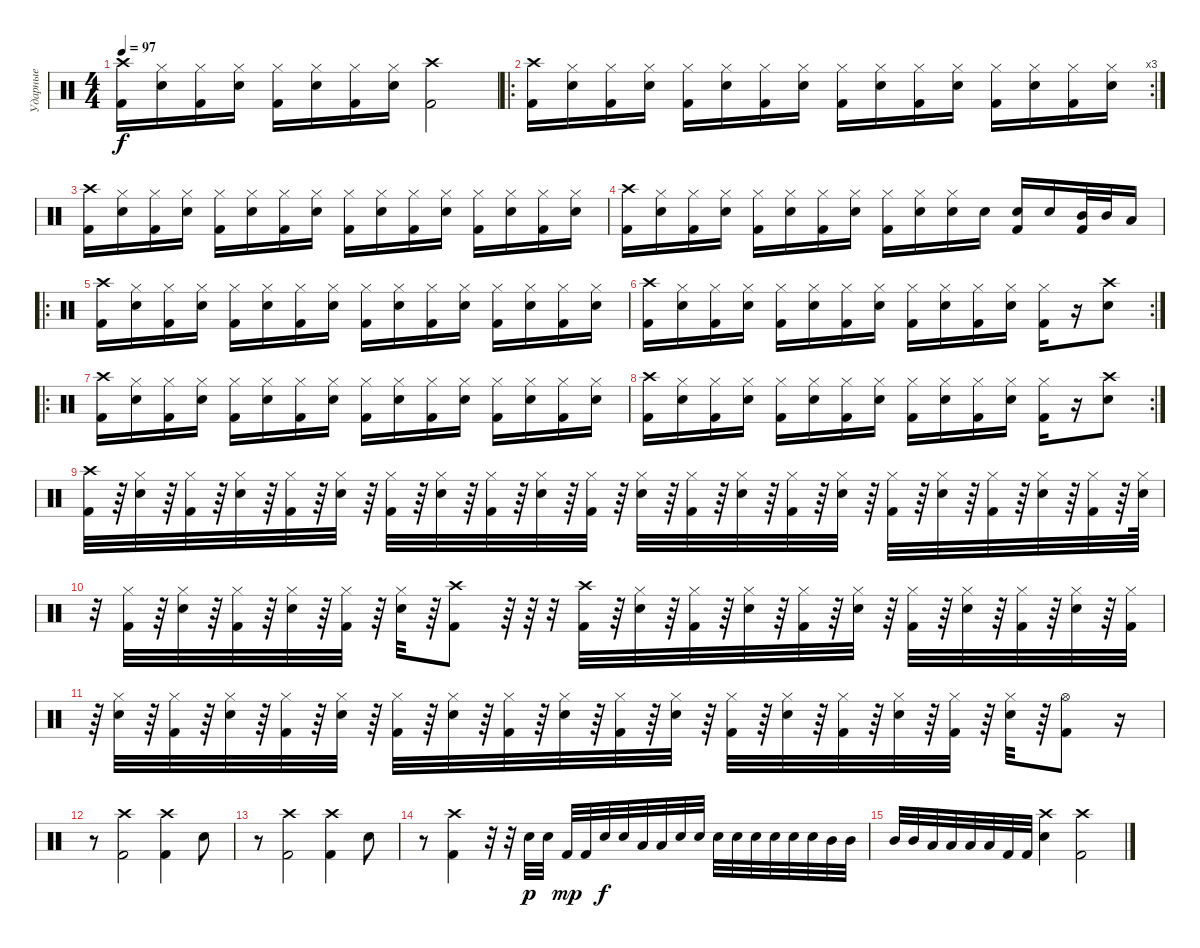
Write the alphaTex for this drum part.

\track ("Ударные" "Ударные") {instrument percussion}
\staff {score}
\articulation defaults
\ts (4 4)
\tempo 97
\clef neutral
\ks c
("Kick (hit) 2" "Crash high (hit)").16{dy f} ("Electric Snare (hit)" "Hi-Hat (closed)").16 ("Kick (hit) 2" "Hi-Hat (closed)").16 ("Electric Snare (hit)" "Hi-Hat (closed)").16 ("Kick (hit) 2" "Hi-Hat (closed)").16 ("Electric Snare (hit)" "Hi-Hat (closed)").16 ("Kick (hit) 2" "Hi-Hat (closed)").16 ("Electric Snare (hit)" "Hi-Hat (closed)").16 ("Kick (hit) 2" "Crash high (hit)").2 |
\ro
\rc 3
("Kick (hit) 2" "Crash high (hit)").16 ("Electric Snare (hit)" "Hi-Hat (closed)").16 ("Kick (hit) 2" "Hi-Hat (closed)").16 ("Electric Snare (hit)" "Hi-Hat (closed)").16 ("Kick (hit) 2" "Hi-Hat (closed)").16 ("Electric Snare (hit)" "Hi-Hat (closed)").16 ("Kick (hit) 2" "Hi-Hat (closed)").16 ("Electric Snare (hit)" "Hi-Hat (closed)").16 ("Kick (hit) 2" "Hi-Hat (closed)").16 ("Electric Snare (hit)" "Hi-Hat (closed)").16 ("Kick (hit) 2" "Hi-Hat (closed)").16 ("Electric Snare (hit)" "Hi-Hat (closed)").16 ("Kick (hit) 2" "Hi-Hat (closed)").16 ("Electric Snare (hit)" "Hi-Hat (closed)").16 ("Kick (hit) 2" "Hi-Hat (closed)").16 ("Electric Snare (hit)" "Hi-Hat (closed)").16 |
("Kick (hit) 2" "Crash high (hit)").16 ("Electric Snare (hit)" "Hi-Hat (closed)").16 ("Kick (hit) 2" "Hi-Hat (closed)").16 ("Electric Snare (hit)" "Hi-Hat (closed)").16 ("Kick (hit) 2" "Hi-Hat (closed)").16 ("Electric Snare (hit)" "Hi-Hat (closed)").16 ("Kick (hit) 2" "Hi-Hat (closed)").16 ("Electric Snare (hit)" "Hi-Hat (closed)").16 ("Kick (hit) 2" "Hi-Hat (closed)").16 ("Electric Snare (hit)" "Hi-Hat (closed)").16 ("Kick (hit) 2" "Hi-Hat (closed)").16 ("Electric Snare (hit)" "Hi-Hat (closed)").16 ("Kick (hit) 2" "Hi-Hat (closed)").16 ("Electric Snare (hit)" "Hi-Hat (closed)").16 ("Kick (hit) 2" "Hi-Hat (closed)").16 ("Electric Snare (hit)" "Hi-Hat (closed)").16 |
("Kick (hit) 2" "Crash high (hit)").16 ("Electric Snare (hit)" "Hi-Hat (closed)").16 ("Kick (hit) 2" "Hi-Hat (closed)").16 ("Electric Snare (hit)" "Hi-Hat (closed)").16 ("Kick (hit) 2" "Hi-Hat (closed)").16 ("Electric Snare (hit)" "Hi-Hat (closed)").16 ("Kick (hit) 2" "Hi-Hat (closed)").16 ("Electric Snare (hit)" "Hi-Hat (closed)").16 ("Kick (hit) 2" "Hi-Hat (closed)").16 ("Electric Snare (hit)" "Hi-Hat (closed)").16 ("Electric Snare (hit)" "Hi-Hat (closed)").16 "Electric Snare (hit)".16 ("Electric Snare (hit)" "Kick (hit) 2").16 "Electric Snare (hit)".16 ("Mid Tom (hit)" "Kick (hit) 2").32 "Mid Tom (hit)".32 "Low Tom (hit)".16 |
\ro
("Kick (hit) 2" "Crash high (hit)").16 ("Electric Snare (hit)" "Hi-Hat (closed)").16 ("Kick (hit) 2" "Hi-Hat (closed)").16 ("Electric Snare (hit)" "Hi-Hat (closed)").16 ("Kick (hit) 2" "Hi-Hat (closed)").16 ("Electric Snare (hit)" "Hi-Hat (closed)").16 ("Kick (hit) 2" "Hi-Hat (closed)").16 ("Electric Snare (hit)" "Hi-Hat (closed)").16 ("Kick (hit) 2" "Hi-Hat (closed)").16 ("Electric Snare (hit)" "Hi-Hat (closed)").16 ("Kick (hit) 2" "Hi-Hat (closed)").16 ("Electric Snare (hit)" "Hi-Hat (closed)").16 ("Kick (hit) 2" "Hi-Hat (closed)").16 ("Electric Snare (hit)" "Hi-Hat (closed)").16 ("Kick (hit) 2" "Hi-Hat (closed)").16 ("Electric Snare (hit)" "Hi-Hat (closed)").16 |
\rc 2
("Kick (hit) 2" "Crash high (hit)").16 ("Electric Snare (hit)" "Hi-Hat (closed)").16 ("Kick (hit) 2" "Hi-Hat (closed)").16 ("Electric Snare (hit)" "Hi-Hat (closed)").16 ("Kick (hit) 2" "Hi-Hat (closed)").16 ("Electric Snare (hit)" "Hi-Hat (closed)").16 ("Kick (hit) 2" "Hi-Hat (closed)").16 ("Electric Snare (hit)" "Hi-Hat (closed)").16 ("Kick (hit) 2" "Hi-Hat (closed)").16 ("Electric Snare (hit)" "Hi-Hat (closed)").16 ("Kick (hit) 2" "Hi-Hat (closed)").16 ("Electric Snare (hit)" "Hi-Hat (closed)").16 ("Kick (hit) 2" "Hi-Hat (closed)").16 r.16 ("Electric Snare (hit)" "Crash high (hit)").8 |
\ro
("Kick (hit) 2" "Crash high (hit)").16 ("Electric Snare (hit)" "Hi-Hat (closed)").16 ("Kick (hit) 2" "Hi-Hat (closed)").16 ("Electric Snare (hit)" "Hi-Hat (closed)").16 ("Kick (hit) 2" "Hi-Hat (closed)").16 ("Electric Snare (hit)" "Hi-Hat (closed)").16 ("Kick (hit) 2" "Hi-Hat (closed)").16 ("Electric Snare (hit)" "Hi-Hat (closed)").16 ("Kick (hit) 2" "Hi-Hat (closed)").16 ("Electric Snare (hit)" "Hi-Hat (closed)").16 ("Kick (hit) 2" "Hi-Hat (closed)").16 ("Electric Snare (hit)" "Hi-Hat (closed)").16 ("Kick (hit) 2" "Hi-Hat (closed)").16 ("Electric Snare (hit)" "Hi-Hat (closed)").16 ("Kick (hit) 2" "Hi-Hat (closed)").16 ("Electric Snare (hit)" "Hi-Hat (closed)").16 |
\rc 2
("Kick (hit) 2" "Crash high (hit)").16 ("Electric Snare (hit)" "Hi-Hat (closed)").16 ("Kick (hit) 2" "Hi-Hat (closed)").16 ("Electric Snare (hit)" "Hi-Hat (closed)").16 ("Kick (hit) 2" "Hi-Hat (closed)").16 ("Electric Snare (hit)" "Hi-Hat (closed)").16 ("Kick (hit) 2" "Hi-Hat (closed)").16 ("Electric Snare (hit)" "Hi-Hat (closed)").16 ("Kick (hit) 2" "Hi-Hat (closed)").16 ("Electric Snare (hit)" "Hi-Hat (closed)").16 ("Kick (hit) 2" "Hi-Hat (closed)").16 ("Electric Snare (hit)" "Hi-Hat (closed)").16 ("Kick (hit) 2" "Hi-Hat (closed)").16 r.16 ("Electric Snare (hit)" "Crash high (hit)").8 |
("Kick (hit) 2" "Crash high (hit)").32 r.64 ("Electric Snare (hit)" "Hi-Hat (closed)").32 r.64 ("Kick (hit) 2" "Hi-Hat (closed)").32 r.64 ("Electric Snare (hit)" "Hi-Hat (closed)").32 r.64 ("Kick (hit) 2" "Hi-Hat (closed)").32 r.64 ("Electric Snare (hit)" "Hi-Hat (closed)").32 r.64 ("Kick (hit) 2" "Hi-Hat (closed)").32 r.64 ("Electric Snare (hit)" "Hi-Hat (closed)").32 r.64 ("Kick (hit) 2" "Hi-Hat (closed)").32 r.64 ("Electric Snare (hit)" "Hi-Hat (closed)").32 r.64 ("Kick (hit) 2" "Hi-Hat (closed)").32 r.64 ("Electric Snare (hit)" "Hi-Hat (closed)").32 r.64 ("Kick (hit) 2" "Hi-Hat (closed)").32 r.64 ("Electric Snare (hit)" "Hi-Hat (closed)").32 r.64 ("Kick (hit) 2" "Hi-Hat (closed)").32 r.64 ("Electric Snare (hit)" "Hi-Hat (closed)").32 r.64 ("Kick (hit) 2" "Hi-Hat (closed)").32 r.64 ("Electric Snare (hit)" "Hi-Hat (closed)").32 r.64 ("Kick (hit) 2" "Hi-Hat (closed)").32 r.64 ("Electric Snare (hit)" "Hi-Hat (closed)").32 r.64 ("Kick (hit) 2" "Hi-Hat (closed)").32 r.64 ("Electric Snare (hit)" "Hi-Hat (closed)").64 |
r.32 ("Kick (hit) 2" "Hi-Hat (closed)").32 r.64 ("Electric Snare (hit)" "Hi-Hat (closed)").32 r.64 ("Kick (hit) 2" "Hi-Hat (closed)").32 r.64 ("Electric Snare (hit)" "Hi-Hat (closed)").32 r.64 ("Kick (hit) 2" "Hi-Hat (closed)").32 r.64 ("Electric Snare (hit)" "Hi-Hat (closed)").32 r.64 ("Kick (hit) 2" "Crash high (hit)").8 r.64 r.64 r.32 ("Kick (hit) 2" "Crash high (hit)").32 r.64 ("Electric Snare (hit)" "Hi-Hat (closed)").32 r.64 ("Kick (hit) 2" "Hi-Hat (closed)").32 r.64 ("Electric Snare (hit)" "Hi-Hat (closed)").32 r.64 ("Kick (hit) 2" "Hi-Hat (closed)").32 r.64 ("Electric Snare (hit)" "Hi-Hat (closed)").32 r.64 ("Kick (hit) 2" "Hi-Hat (closed)").32 r.64 ("Electric Snare (hit)" "Hi-Hat (closed)").32 r.64 ("Kick (hit) 2" "Hi-Hat (closed)").32 r.64 ("Electric Snare (hit)" "Hi-Hat (closed)").32 r.64 ("Kick (hit) 2" "Hi-Hat (closed)").32 |
r.64 ("Electric Snare (hit)" "Hi-Hat (closed)").32 r.64 ("Kick (hit) 2" "Hi-Hat (closed)").32 r.64 ("Electric Snare (hit)" "Hi-Hat (closed)").32 r.64 ("Kick (hit) 2" "Hi-Hat (closed)").32 r.64 ("Electric Snare (hit)" "Hi-Hat (closed)").32 r.64 ("Kick (hit) 2" "Hi-Hat (closed)").32 r.64 ("Electric Snare (hit)" "Hi-Hat (closed)").32 r.64 ("Kick (hit) 2" "Hi-Hat (closed)").32 r.64 ("Electric Snare (hit)" "Hi-Hat (closed)").32 r.64 ("Kick (hit) 2" "Hi-Hat (closed)").32 r.64 ("Electric Snare (hit)" "Hi-Hat (closed)").32 r.64 ("Kick (hit) 2" "Hi-Hat (closed)").32 r.64 ("Electric Snare (hit)" "Hi-Hat (closed)").32 r.64 ("Kick (hit) 2" "Hi-Hat (closed)").32 r.64 ("Electric Snare (hit)" "Hi-Hat (closed)").32 r.64 ("Kick (hit) 2" "Hi-Hat (closed)").32 r.64 ("Electric Snare (hit)" "Hi-Hat (closed)").32 r.64 ("Kick (hit) 2" "Hi-Hat (open)").8 r.16 |
r.8 ("Kick (hit) 2" "Crash high (hit)").2 ("Kick (hit) 2" "Crash high (hit)").4 "Snare (hit)".8 |
r.8 ("Kick (hit) 2" "Crash high (hit)").2 ("Kick (hit) 2" "Crash high (hit)").4 "Snare (hit)".8 |
r.8 ("Kick (hit) 2" "Crash high (hit)").4 r.32 r.32 "Electric Snare (hit)".32{dy p} "Electric Snare (hit)".32 "Kick (hit) 2".32{dy mp} "Kick (hit) 2".32 "Electric Snare (hit)".32{dy f} "Electric Snare (hit)".32 "Low Tom (hit)".32 "Low Tom (hit)".32 "Electric Snare (hit)".32 "Electric Snare (hit)".32 "Electric Snare (hit)".32 "Electric Snare (hit)".32 "Electric Snare (hit)".32 "Electric Snare (hit)".32 "Electric Snare (hit)".32 "Electric Snare (hit)".32 "Mid Tom (hit)".32 "Mid Tom (hit)".32 |
"Mid Tom (hit)".32 "Mid Tom (hit)".32 "Low Tom (hit)".32 "Low Tom (hit)".32 "Low Tom (hit)".32 "Low Tom (hit)".32 "Kick (hit) 2".32 "Kick (hit) 2".32 ("Electric Snare (hit)" "Crash high (hit)").4 ("Kick (hit) 2" "Crash high (hit)").2
